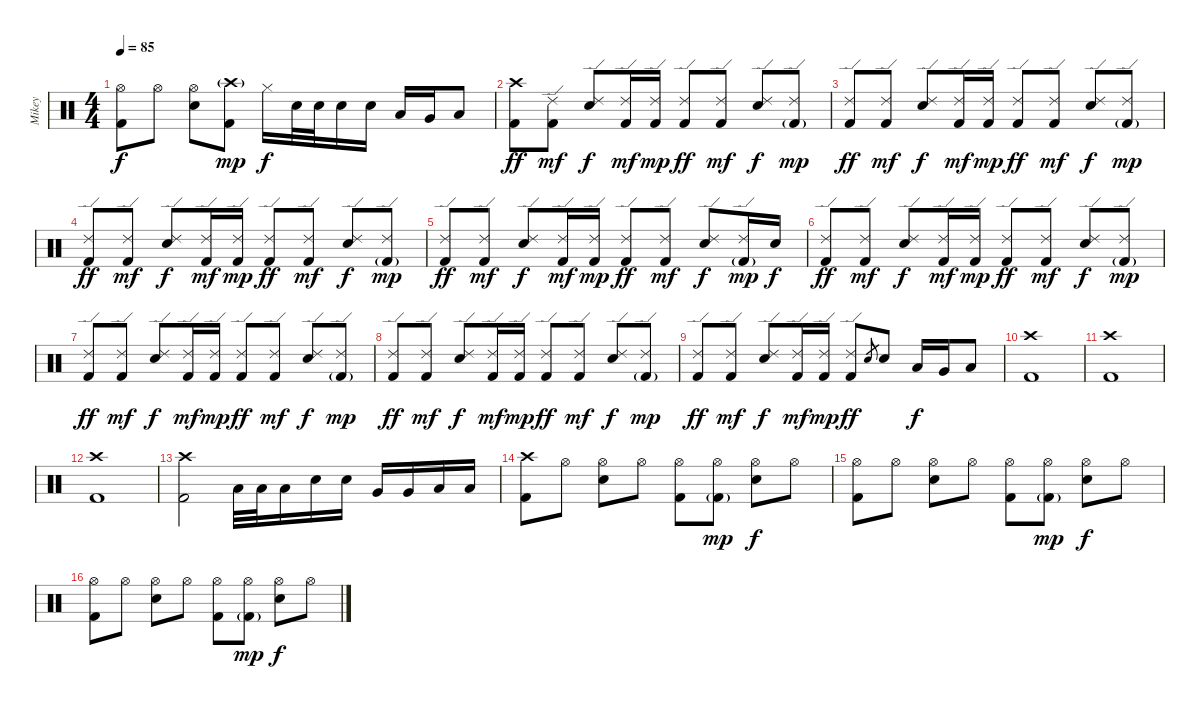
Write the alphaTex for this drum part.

\track ("Mikey" "Mikey") {instrument percussion}
\staff {score}
\articulation defaults
\ts (4 4)
\tempo 85
\clef neutral
\ks c
("Hi-Hat (open)" "Kick (hit) 2").8{dy f} "Hi-Hat (open)".8 ("Hi-Hat (open)" "Snare (hit) 2").8 ("Crash high (hit)"{g} "Kick (hit) 2").8{dy mp} "Hi-Hat (closed)".16{dy f} "Snare (hit) 2".32 "Snare (hit) 2".32 "Snare (hit) 2".16 "Snare (hit) 2".16 "Low Tom (hit)".16 "Very Low Tom (hit)".16 "Low Floor Tom (hit)".8 |
("Crash high (hit)" "Kick (hit) 2").8{dy ff} ("Ride (edge) 2" "Kick (hit) 2").8{dy mf} ("Ride (edge) 2" "Snare (hit) 2").8{dy f} ("Ride (edge) 2" "Kick (hit) 2").16{dy mf} ("Ride (edge) 2" "Kick (hit) 2").16{dy mp} ("Ride (edge) 2" "Kick (hit) 2").8{dy ff} ("Ride (edge) 2" "Kick (hit) 2").8{dy mf} ("Ride (edge) 2" "Snare (hit) 2").8{dy f} ("Ride (edge) 2" "Kick (hit) 2"{g}).8{dy mp} |
("Ride (edge) 2" "Kick (hit) 2").8{dy ff} ("Ride (edge) 2" "Kick (hit) 2").8{dy mf} ("Ride (edge) 2" "Snare (hit) 2").8{dy f} ("Ride (edge) 2" "Kick (hit) 2").16{dy mf} ("Ride (edge) 2" "Kick (hit) 2").16{dy mp} ("Ride (edge) 2" "Kick (hit) 2").8{dy ff} ("Ride (edge) 2" "Kick (hit) 2").8{dy mf} ("Ride (edge) 2" "Snare (hit) 2").8{dy f} ("Ride (edge) 2" "Kick (hit) 2"{g}).8{dy mp} |
("Ride (edge) 2" "Kick (hit) 2").8{dy ff} ("Ride (edge) 2" "Kick (hit) 2").8{dy mf} ("Ride (edge) 2" "Snare (hit) 2").8{dy f} ("Ride (edge) 2" "Kick (hit) 2").16{dy mf} ("Ride (edge) 2" "Kick (hit) 2").16{dy mp} ("Ride (edge) 2" "Kick (hit) 2").8{dy ff} ("Ride (edge) 2" "Kick (hit) 2").8{dy mf} ("Ride (edge) 2" "Snare (hit) 2").8{dy f} ("Ride (edge) 2" "Kick (hit) 2"{g}).8{dy mp} |
("Ride (edge) 2" "Kick (hit) 2").8{dy ff} ("Ride (edge) 2" "Kick (hit) 2").8{dy mf} ("Ride (edge) 2" "Snare (hit) 2").8{dy f} ("Ride (edge) 2" "Kick (hit) 2").16{dy mf} ("Ride (edge) 2" "Kick (hit) 2").16{dy mp} ("Ride (edge) 2" "Kick (hit) 2").8{dy ff} ("Ride (edge) 2" "Kick (hit) 2").8{dy mf} ("Ride (edge) 2" "Snare (hit) 2").8{dy f} ("Ride (edge) 2" "Kick (hit) 2"{g}).16{dy mp} "Snare (hit) 2".16{dy f} |
("Ride (edge) 2" "Kick (hit) 2").8{dy ff} ("Ride (edge) 2" "Kick (hit) 2").8{dy mf} ("Ride (edge) 2" "Snare (hit) 2").8{dy f} ("Ride (edge) 2" "Kick (hit) 2").16{dy mf} ("Ride (edge) 2" "Kick (hit) 2").16{dy mp} ("Ride (edge) 2" "Kick (hit) 2").8{dy ff} ("Ride (edge) 2" "Kick (hit) 2").8{dy mf} ("Ride (edge) 2" "Snare (hit) 2").8{dy f} ("Ride (edge) 2" "Kick (hit) 2"{g}).8{dy mp} |
("Ride (edge) 2" "Kick (hit) 2").8{dy ff} ("Ride (edge) 2" "Kick (hit) 2").8{dy mf} ("Ride (edge) 2" "Snare (hit) 2").8{dy f} ("Ride (edge) 2" "Kick (hit) 2").16{dy mf} ("Ride (edge) 2" "Kick (hit) 2").16{dy mp} ("Ride (edge) 2" "Kick (hit) 2").8{dy ff} ("Ride (edge) 2" "Kick (hit) 2").8{dy mf} ("Ride (edge) 2" "Snare (hit) 2").8{dy f} ("Ride (edge) 2" "Kick (hit) 2"{g}).8{dy mp} |
("Ride (edge) 2" "Kick (hit) 2").8{dy ff} ("Ride (edge) 2" "Kick (hit) 2").8{dy mf} ("Ride (edge) 2" "Snare (hit) 2").8{dy f} ("Ride (edge) 2" "Kick (hit) 2").16{dy mf} ("Ride (edge) 2" "Kick (hit) 2").16{dy mp} ("Ride (edge) 2" "Kick (hit) 2").8{dy ff} ("Ride (edge) 2" "Kick (hit) 2").8{dy mf} ("Ride (edge) 2" "Snare (hit) 2").8{dy f} ("Ride (edge) 2" "Kick (hit) 2"{g}).8{dy mp} |
("Ride (edge) 2" "Kick (hit) 2").8{dy ff} ("Ride (edge) 2" "Kick (hit) 2").8{dy mf} ("Ride (edge) 2" "Snare (hit) 2").8{dy f} ("Ride (edge) 2" "Kick (hit) 2").16{dy mf} ("Ride (edge) 2" "Kick (hit) 2").16{dy mp} ("Ride (edge) 2" "Kick (hit) 2").8{dy ff} "Snare (hit) 2".8{gr} "Snare (hit) 2".8 "Low Tom (hit)".16{dy f} "Very Low Tom (hit)".16 "Low Floor Tom (hit)".8 |
("Crash high (hit)" "Kick (hit) 2").1 |
("Crash high (hit)" "Kick (hit) 2").1 |
("Crash high (hit)" "Kick (hit) 2").1 |
("Crash high (hit)" "Kick (hit) 2").2 "Low Tom (hit)".32 "Low Tom (hit)".32 "Low Tom (hit)".16 "Snare (hit) 2".16 "Snare (hit) 2".16 "Very Low Tom (hit)".16 "Very Low Tom (hit)".16 "Low Floor Tom (hit)".16 "Low Floor Tom (hit)".16 |
("Crash high (hit)" "Kick (hit) 2").8 "Hi-Hat (open)".8 ("Hi-Hat (open)" "Snare (hit) 2").8 "Hi-Hat (open)".8 ("Hi-Hat (open)" "Kick (hit) 2").8 ("Hi-Hat (open)" "Kick (hit) 2"{g}).8{dy mp} ("Hi-Hat (open)" "Snare (hit) 2").8{dy f} "Hi-Hat (open)".8 |
("Hi-Hat (open)" "Kick (hit) 2").8 "Hi-Hat (open)".8 ("Hi-Hat (open)" "Snare (hit) 2").8 "Hi-Hat (open)".8 ("Hi-Hat (open)" "Kick (hit) 2").8 ("Hi-Hat (open)" "Kick (hit) 2"{g}).8{dy mp} ("Hi-Hat (open)" "Snare (hit) 2").8{dy f} "Hi-Hat (open)".8 |
("Hi-Hat (open)" "Kick (hit) 2").8 "Hi-Hat (open)".8 ("Hi-Hat (open)" "Snare (hit) 2").8 "Hi-Hat (open)".8 ("Hi-Hat (open)" "Kick (hit) 2").8 ("Hi-Hat (open)" "Kick (hit) 2"{g}).8{dy mp} ("Hi-Hat (open)" "Snare (hit) 2").8{dy f} "Hi-Hat (open)".8
